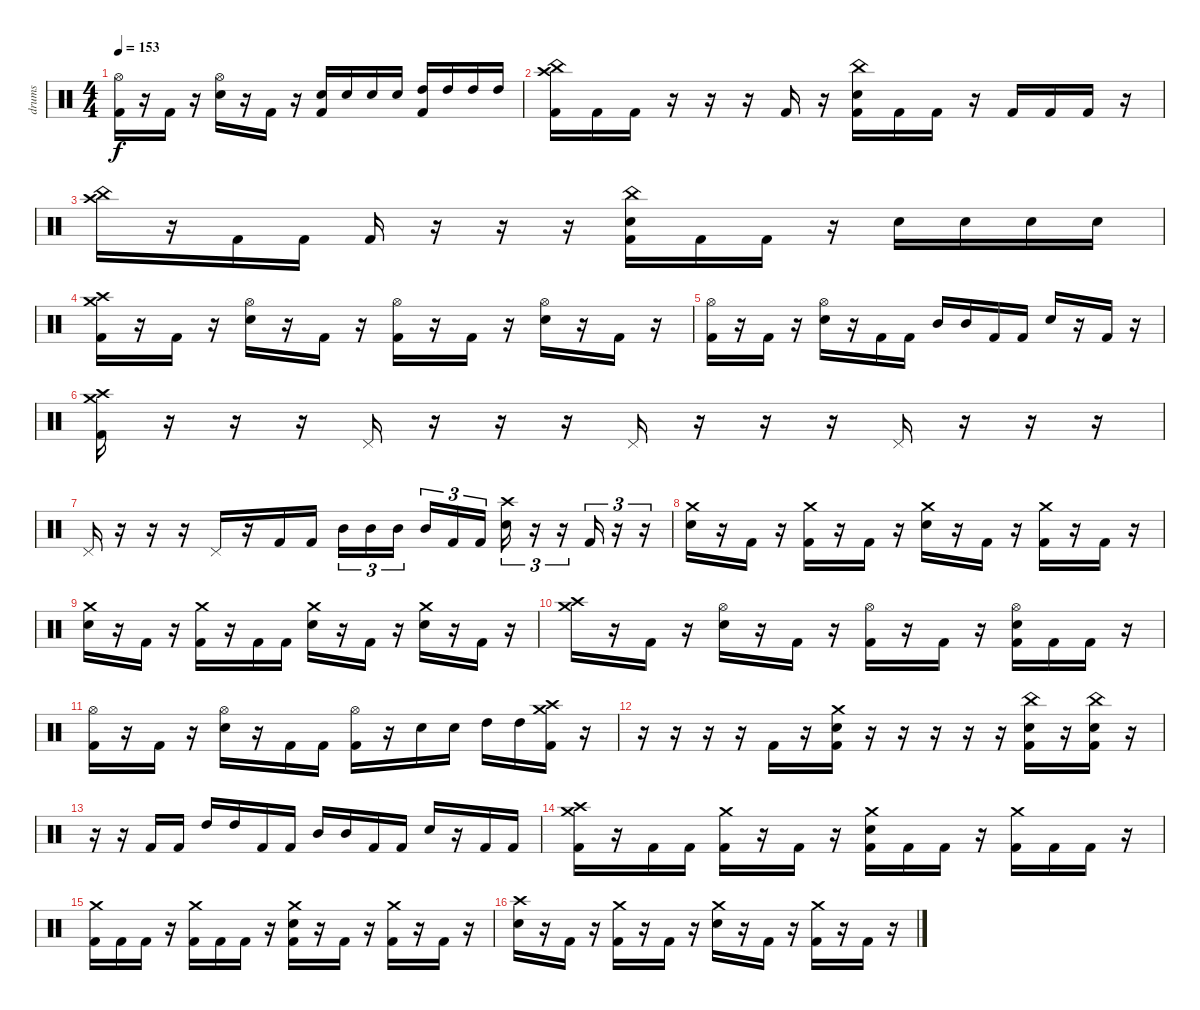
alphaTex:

\track ("drums" "drums") {instrument percussion}
\staff {score}
\articulation defaults
\ts (4 4)
\tempo 153
\clef neutral
\ks c
("Hi-Hat (open)" "Kick (hit) 2").16{dy f} r.16 "Kick (hit) 2".16 r.16 ("Hi-Hat (open)" "Electric Snare (hit)").16 r.16 "Kick (hit) 2".16 r.16 ("Electric Snare (hit)" "Kick (hit) 2").16 "Electric Snare (hit)".16 "Electric Snare (hit)".16 "Electric Snare (hit)".16 ("High Tom (hit)" "Kick (hit) 2").16 "High Tom (hit)".16 "High Tom (hit)".16 "High Tom (hit)".16 |
("China (hit)" "Crash high (hit)" "Kick (hit) 2").16 "Kick (hit) 2".16 "Kick (hit) 2".16 r.16 r.16 r.16 "Kick (hit) 2".16 r.16 ("China (hit)" "Electric Snare (hit)" "Kick (hit) 2").16 "Kick (hit) 2".16 "Kick (hit) 2".16 r.16 "Kick (hit) 2".16 "Kick (hit) 2".16 "Kick (hit) 2".16 r.16 |
("China (hit)" "Crash high (hit)").16 r.16 "Kick (hit) 2".16 "Kick (hit) 2".16 "Kick (hit) 2".16 r.16 r.16 r.16 ("China (hit)" "Electric Snare (hit)" "Kick (hit) 2").16 "Kick (hit) 2".16 "Kick (hit) 2".16 r.16 "Electric Snare (hit)".16 "Electric Snare (hit)".16 "Electric Snare (hit)".16 "Electric Snare (hit)".16 |
("Crash medium (hit)" "Crash high (hit)" "Kick (hit) 2").16 r.16 "Kick (hit) 2".16 r.16 ("Hi-Hat (open)" "Electric Snare (hit)").16 r.16 "Kick (hit) 2".16 r.16 ("Hi-Hat (open)" "Kick (hit) 2").16 r.16 "Kick (hit) 2".16 r.16 ("Hi-Hat (open)" "Electric Snare (hit)").16 r.16 "Kick (hit) 2".16 r.16 |
("Hi-Hat (open)" "Kick (hit) 2").16 r.16 "Kick (hit) 2".16 r.16 ("Hi-Hat (open)" "Electric Snare (hit)").16 r.16 "Kick (hit) 2".16 "Kick (hit) 2".16 "Mid Tom (hit)".16 "Mid Tom (hit)".16 "Kick (hit) 2".16 "Kick (hit) 2".16 "Electric Snare (hit)".16 r.16 "Kick (hit) 2".16 r.16 |
("Crash medium (hit)" "Crash high (hit)" "Kick (hit) 2").16 r.16 r.16 r.16 "Pedal Hi-Hat (hit)".16 r.16 r.16 r.16 "Pedal Hi-Hat (hit)".16 r.16 r.16 r.16 "Pedal Hi-Hat (hit)".16 r.16 r.16 r.16 |
"Pedal Hi-Hat (hit)".16 r.16 r.16 r.16 "Pedal Hi-Hat (hit)".16 r.16 "Kick (hit) 2".16 "Kick (hit) 2".16 "Mid Tom (hit)".16{tu (3 2)} "Mid Tom (hit)".16{tu (3 2)} "Mid Tom (hit)".16{tu (3 2) beam splitsecondary} "Mid Tom (hit)".16{tu (3 2)} "Kick (hit) 2".16{tu (3 2)} "Kick (hit) 2".16{tu (3 2)} ("Crash high (hit)" "Electric Snare (hit)").16{tu (3 2)} r.16{tu (3 2)} r.16{tu (3 2)} "Kick (hit) 2".16{tu (3 2)} r.16{tu (3 2)} r.16{tu (3 2)} |
("Crash medium (hit)" "Electric Snare (hit)").16 r.16 "Kick (hit) 2".16 r.16 ("Crash medium (hit)" "Kick (hit) 2").16 r.16 "Kick (hit) 2".16 r.16 ("Crash medium (hit)" "Electric Snare (hit)").16 r.16 "Kick (hit) 2".16 r.16 ("Crash medium (hit)" "Kick (hit) 2").16 r.16 "Kick (hit) 2".16 r.16 |
("Crash medium (hit)" "Electric Snare (hit)").16 r.16 "Kick (hit) 2".16 r.16 ("Crash medium (hit)" "Kick (hit) 2").16 r.16 "Kick (hit) 2".16 "Kick (hit) 2".16 ("Crash medium (hit)" "Electric Snare (hit)").16 r.16 "Kick (hit) 2".16 r.16 ("Crash medium (hit)" "Electric Snare (hit)").16 r.16 "Kick (hit) 2".16 r.16 |
("Crash medium (hit)" "Crash high (hit)").16 r.16 "Kick (hit) 2".16 r.16 ("Hi-Hat (open)" "Electric Snare (hit)").16 r.16 "Kick (hit) 2".16 r.16 ("Hi-Hat (open)" "Kick (hit) 2").16 r.16 "Kick (hit) 2".16 r.16 ("Hi-Hat (open)" "Electric Snare (hit)" "Kick (hit) 2").16 "Kick (hit) 2".16 "Kick (hit) 2".16 r.16 |
("Hi-Hat (open)" "Kick (hit) 2").16 r.16 "Kick (hit) 2".16 r.16 ("Hi-Hat (open)" "Electric Snare (hit)").16 r.16 "Kick (hit) 2".16 "Kick (hit) 2".16 ("Hi-Hat (open)" "Kick (hit) 2").16 r.16 "Electric Snare (hit)".16 "Electric Snare (hit)".16 "High Tom (hit)".16 "High Tom (hit)".16 ("Crash high (hit)" "Crash medium (hit)" "Kick (hit) 2").16 r.16 |
r.16 r.16 r.16 r.16 "Kick (hit) 2".16 r.16 ("Crash medium (hit)" "Electric Snare (hit)" "Kick (hit) 2").16 r.16 r.16 r.16 r.16 r.16 ("China (hit)" "Electric Snare (hit)" "Kick (hit) 2").16 r.16 ("China (hit)" "Electric Snare (hit)" "Kick (hit) 2").16 r.16 |
r.16 r.16 "Kick (hit) 2".16 "Kick (hit) 2".16 "High Tom (hit)".16 "High Tom (hit)".16 "Kick (hit) 2".16 "Kick (hit) 2".16 "Mid Tom (hit)".16 "Mid Tom (hit)".16 "Kick (hit) 2".16 "Kick (hit) 2".16 "Electric Snare (hit)".16 r.16 "Kick (hit) 2".16 "Kick (hit) 2".16 |
("Crash medium (hit)" "Crash high (hit)" "Kick (hit) 2").16 r.16 "Kick (hit) 2".16 "Kick (hit) 2".16 ("Crash medium (hit)" "Kick (hit) 2").16 r.16 "Kick (hit) 2".16 r.16 ("Crash medium (hit)" "Electric Snare (hit)" "Kick (hit) 2").16 "Kick (hit) 2".16 "Kick (hit) 2".16 r.16 ("Crash medium (hit)" "Kick (hit) 2").16 "Kick (hit) 2".16 "Kick (hit) 2".16 r.16 |
("Crash medium (hit)" "Kick (hit) 2").16 "Kick (hit) 2".16 "Kick (hit) 2".16 r.16 ("Crash medium (hit)" "Kick (hit) 2").16 "Kick (hit) 2".16 "Kick (hit) 2".16 r.16 ("Crash medium (hit)" "Electric Snare (hit)" "Kick (hit) 2").16 r.16 "Kick (hit) 2".16 r.16 ("Crash medium (hit)" "Kick (hit) 2").16 r.16 "Kick (hit) 2".16 r.16 |
("Crash high (hit)" "Electric Snare (hit)").16 r.16 "Kick (hit) 2".16 r.16 ("Crash medium (hit)" "Kick (hit) 2").16 r.16 "Kick (hit) 2".16 r.16 ("Crash medium (hit)" "Electric Snare (hit)").16 r.16 "Kick (hit) 2".16 r.16 ("Crash medium (hit)" "Kick (hit) 2").16 r.16 "Kick (hit) 2".16 r.16
